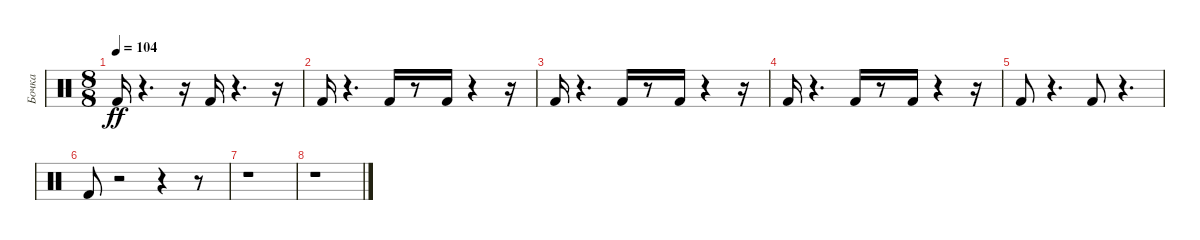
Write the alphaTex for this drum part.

\track ("Бочка" "Бочка") {instrument percussion}
\staff {score}
\articulation defaults
\ts (8 8)
\tempo 104
\clef neutral
\ks c "Kick (hit) 2".16{dy ff}
r.4{d} r.16 "Kick (hit) 2".16 r.4{d} r.16 |
"Kick (hit) 2".16 r.4{d} "Kick (hit) 2".16 r.8 "Kick (hit) 2".16 r.4 r.16 |
"Kick (hit) 2".16 r.4{d} "Kick (hit) 2".16 r.8 "Kick (hit) 2".16 r.4 r.16 |
"Kick (hit) 2".16 r.4{d} "Kick (hit) 2".16 r.8 "Kick (hit) 2".16 r.4 r.16 |
"Kick (hit) 2".8 r.4{d} "Kick (hit) 2".8 r.4{d} |
"Kick (hit) 2".8 r.2 r.4 r.8 |
r.1 |
r.1
